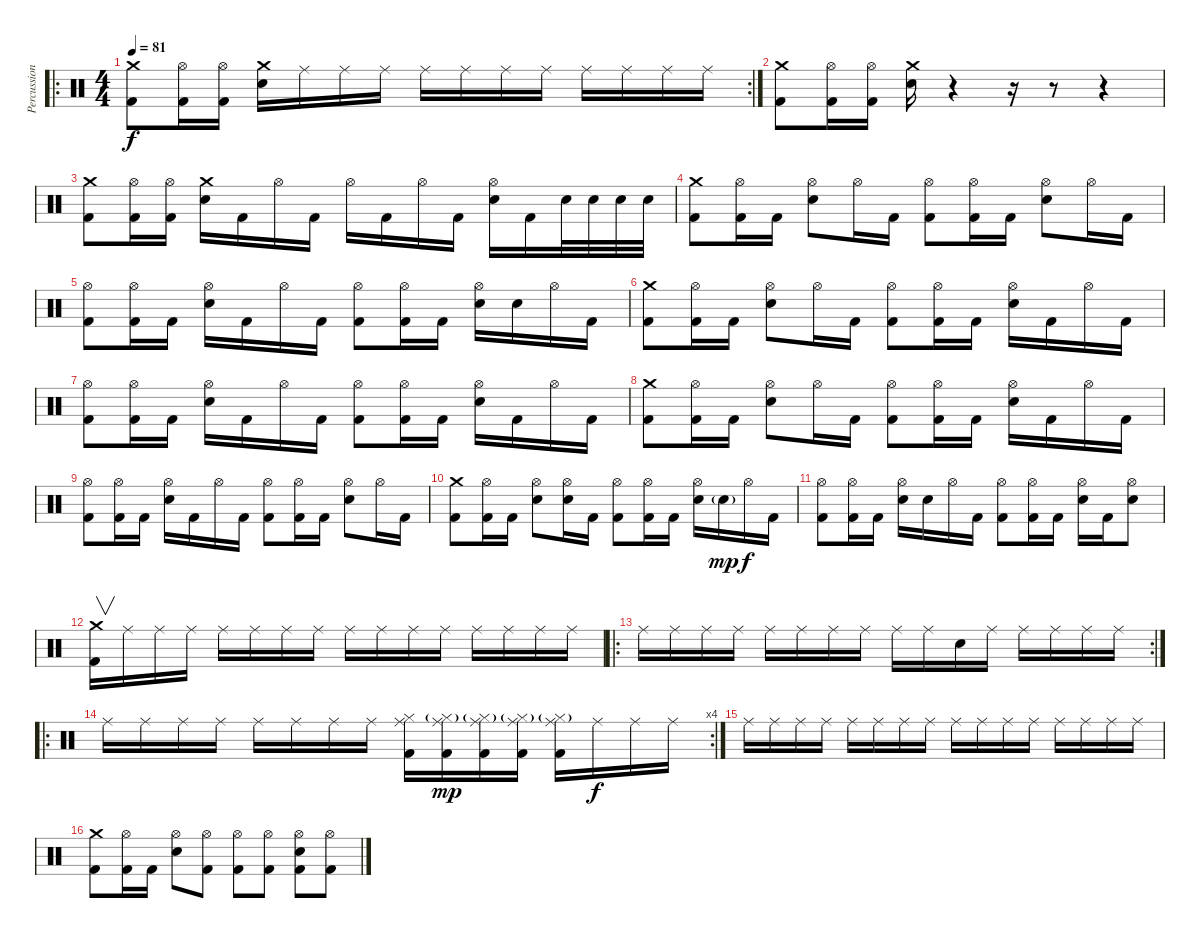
\track ("Percussion" "Percussion") {instrument percussion}
\staff {score}
\articulation defaults
\ro
\rc 2
\ts (4 4)
\tempo 81
\clef neutral
\ks c
("Crash medium (hit)" "Kick (hit) 2").8{dy f} ("Hi-Hat (open)" "Kick (hit) 2").16 ("Hi-Hat (open)" "Kick (hit) 2").16 ("Crash medium (hit)" "Electric Snare (hit)").16 "Ride (middle)".16 "Ride (middle)".16 "Ride (middle)".16 "Ride (middle)".16 "Ride (middle)".16 "Ride (middle)".16 "Ride (middle)".16 "Ride (middle)".16 "Ride (middle)".16 "Ride (middle)".16 "Ride (middle)".16 |
("Crash medium (hit)" "Kick (hit) 2").8 ("Hi-Hat (open)" "Kick (hit) 2").16 ("Hi-Hat (open)" "Kick (hit) 2").16 ("Crash medium (hit)" "Electric Snare (hit)").16 r.4 r.16 r.8 r.4 |
("Crash medium (hit)" "Kick (hit) 2").8 ("Hi-Hat (open)" "Kick (hit) 2").16 ("Hi-Hat (open)" "Kick (hit) 2").16 ("Crash medium (hit)" "Electric Snare (hit)").16 "Kick (hit) 2".16 "Hi-Hat (open)".16 "Kick (hit) 2".16 "Hi-Hat (open)".16 "Kick (hit) 2".16 "Hi-Hat (open)".16 "Kick (hit) 2".16 ("Hi-Hat (open)" "Electric Snare (hit)").16 "Kick (hit) 2".16 "Electric Snare (hit)".32 "Electric Snare (hit)".32 "Electric Snare (hit)".32 "Electric Snare (hit)".32 |
("Crash medium (hit)" "Kick (hit) 2").8 ("Hi-Hat (open)" "Kick (hit) 2").16 "Kick (hit) 2".16 ("Hi-Hat (open)" "Electric Snare (hit)").8 "Hi-Hat (open)".16 "Kick (hit) 2".16 ("Hi-Hat (open)" "Kick (hit) 2").8 ("Hi-Hat (open)" "Kick (hit) 2").16 "Kick (hit) 2".16 ("Hi-Hat (open)" "Electric Snare (hit)").8 "Hi-Hat (open)".16 "Kick (hit) 2".16 |
("Hi-Hat (open)" "Kick (hit) 2").8 ("Hi-Hat (open)" "Kick (hit) 2").16 "Kick (hit) 2".16 ("Hi-Hat (open)" "Electric Snare (hit)").16 "Kick (hit) 2".16 "Hi-Hat (open)".16 "Kick (hit) 2".16 ("Hi-Hat (open)" "Kick (hit) 2").8 ("Hi-Hat (open)" "Kick (hit) 2").16 "Kick (hit) 2".16 ("Hi-Hat (open)" "Electric Snare (hit)").16 "Electric Snare (hit)".16 "Hi-Hat (open)".16 "Kick (hit) 2".16 |
("Crash medium (hit)" "Kick (hit) 2").8 ("Hi-Hat (open)" "Kick (hit) 2").16 "Kick (hit) 2".16 ("Hi-Hat (open)" "Electric Snare (hit)").8 "Hi-Hat (open)".16 "Kick (hit) 2".16 ("Hi-Hat (open)" "Kick (hit) 2").8 ("Hi-Hat (open)" "Kick (hit) 2").16 "Kick (hit) 2".16 ("Hi-Hat (open)" "Electric Snare (hit)").16 "Kick (hit) 2".16 "Hi-Hat (open)".16 "Kick (hit) 2".16 |
("Hi-Hat (open)" "Kick (hit) 2").8 ("Hi-Hat (open)" "Kick (hit) 2").16 "Kick (hit) 2".16 ("Hi-Hat (open)" "Electric Snare (hit)").16 "Kick (hit) 2".16 "Hi-Hat (open)".16 "Kick (hit) 2".16 ("Hi-Hat (open)" "Kick (hit) 2").8 ("Hi-Hat (open)" "Kick (hit) 2").16 "Kick (hit) 2".16 ("Hi-Hat (open)" "Electric Snare (hit)").16 "Kick (hit) 2".16 "Hi-Hat (open)".16 "Kick (hit) 2".16 |
("Crash medium (hit)" "Kick (hit) 2").8 ("Hi-Hat (open)" "Kick (hit) 2").16 "Kick (hit) 2".16 ("Hi-Hat (open)" "Electric Snare (hit)").8 "Hi-Hat (open)".16 "Kick (hit) 2".16 ("Hi-Hat (open)" "Kick (hit) 2").8 ("Hi-Hat (open)" "Kick (hit) 2").16 "Kick (hit) 2".16 ("Hi-Hat (open)" "Electric Snare (hit)").16 "Kick (hit) 2".16 "Hi-Hat (open)".16 "Kick (hit) 2".16 |
("Hi-Hat (open)" "Kick (hit) 2").8 ("Hi-Hat (open)" "Kick (hit) 2").16 "Kick (hit) 2".16 ("Hi-Hat (open)" "Electric Snare (hit)").16 "Kick (hit) 2".16 "Hi-Hat (open)".16 "Kick (hit) 2".16 ("Hi-Hat (open)" "Kick (hit) 2").8 ("Hi-Hat (open)" "Kick (hit) 2").16 "Kick (hit) 2".16 ("Hi-Hat (open)" "Electric Snare (hit)").8 "Hi-Hat (open)".16 "Kick (hit) 2".16 |
("Crash medium (hit)" "Kick (hit) 2").8 ("Hi-Hat (open)" "Kick (hit) 2").16 "Kick (hit) 2".16 ("Hi-Hat (open)" "Electric Snare (hit)").8 ("Hi-Hat (open)" "Electric Snare (hit)").16 "Kick (hit) 2".16 ("Hi-Hat (open)" "Kick (hit) 2").8 ("Hi-Hat (open)" "Kick (hit) 2").16 "Kick (hit) 2".16 ("Hi-Hat (open)" "Electric Snare (hit)").16 "Electric Snare (hit)"{g}.16{dy mp} "Hi-Hat (open)".16{dy f} "Kick (hit) 2".16 |
("Hi-Hat (open)" "Kick (hit) 2").8 ("Hi-Hat (open)" "Kick (hit) 2").16 "Kick (hit) 2".16 ("Hi-Hat (open)" "Electric Snare (hit)").16 "Electric Snare (hit)".16 "Hi-Hat (open)".16 "Kick (hit) 2".16 ("Hi-Hat (open)" "Kick (hit) 2").8 ("Hi-Hat (open)" "Kick (hit) 2").16 "Kick (hit) 2".16 ("Hi-Hat (open)" "Electric Snare (hit)").16 "Kick (hit) 2".16 ("Hi-Hat (open)" "Electric Snare (hit)").8 |
("Crash medium (hit)" "Kick (hit) 2").16{v} "Ride (middle)".16 "Ride (middle)".16 "Ride (middle)".16 "Ride (middle)".16 "Ride (middle)".16 "Ride (middle)".16 "Ride (middle)".16 "Ride (middle)".16 "Ride (middle)".16 "Ride (middle)".16 "Ride (middle)".16 "Ride (middle)".16 "Ride (middle)".16 "Ride (middle)".16 "Ride (middle)".16 |
\ro
\rc 2 "Ride (middle)".16 "Ride (middle)".16 "Ride (middle)".16 "Ride (middle)".16 "Ride (middle)".16 "Ride (middle)".16 "Ride (middle)".16 "Ride (middle)".16 "Ride (middle)".16 "Ride (middle)".16 "Snare (hit)".16 "Ride (middle)".16 "Ride (middle)".16 "Ride (middle)".16 "Ride (middle)".16 "Ride (middle)".16
|
\ro
\rc 4 "Ride (middle)".16 "Ride (middle)".16 "Ride (middle)".16 "Ride (middle)".16 "Ride (middle)".16 "Ride (middle)".16 "Ride (middle)".16 "Ride (middle)".16
("Ride (middle)" "Hi-Hat (closed)" "Kick (hit) 2").16 ("Ride (middle)" "Hi-Hat (closed)"{g} "Kick (hit) 2").16{dy mp} ("Ride (middle)" "Hi-Hat (closed)"{g} "Kick (hit) 2").16 ("Ride (middle)" "Hi-Hat (closed)"{g} "Kick (hit) 2").16 ("Ride (middle)" "Hi-Hat (closed)"{g} "Kick (hit) 2").16 "Ride (middle)".16{dy f} "Ride (middle)".16 "Ride (middle)".16 |
"Ride (middle)".16 "Ride (middle)".16 "Ride (middle)".16 "Ride (middle)".16 "Ride (middle)".16 "Ride (middle)".16 "Ride (middle)".16 "Ride (middle)".16 "Ride (middle)".16 "Ride (middle)".16 "Ride (middle)".16 "Ride (middle)".16 "Ride (middle)".16 "Ride (middle)".16 "Ride (middle)".16 "Ride (middle)".16 |
("Crash medium (hit)" "Kick (hit) 2").8 ("Hi-Hat (open)" "Kick (hit) 2").16 "Kick (hit) 2".16 ("Hi-Hat (open)" "Electric Snare (hit)").8 ("Hi-Hat (open)" "Kick (hit) 2").8 ("Hi-Hat (open)" "Kick (hit) 2").8 ("Hi-Hat (open)" "Kick (hit) 2").8 ("Hi-Hat (open)" "Electric Snare (hit)" "Kick (hit) 2").8 ("Hi-Hat (open)" "Kick (hit) 2").8
